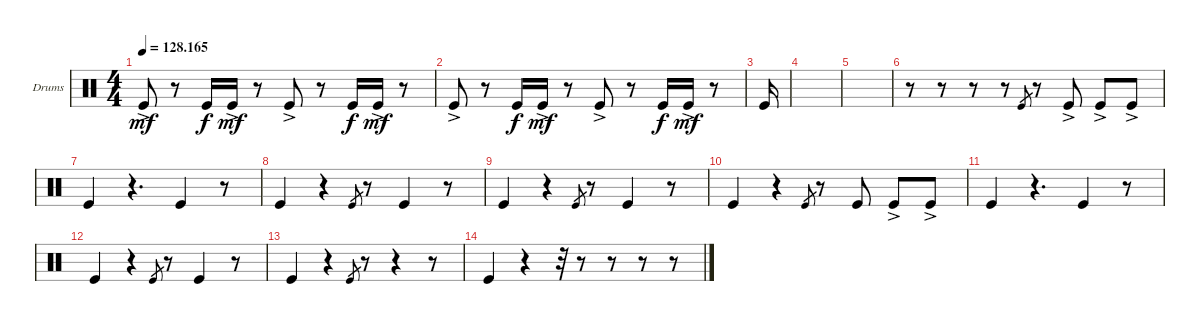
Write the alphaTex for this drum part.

\defaultSystemsLayout 4
\bracketExtendMode groupsimilarinstruments
\firstSystemTrackNameOrientation horizontal
\otherSystemsTrackNameOrientation horizontal
\track ("Drumkit" "Drums") {instrument percussion}
\staff {score}
\articulation defaults
\ts (4 4)
\tempo
128.165
\accidentals auto
\clef neutral
\ottava regular
\simile none
\ks c "Kick (hit)"{ac}.8{dy mf}
r.8 "Kick (hit)".16{dy f} "Kick (hit)"{ac}.16{dy mf} r.8 "Kick (hit)"{ac}.8 r.8 "Kick (hit)".16{dy f} "Kick (hit)"{ac}.16{dy mf} r.8 |
"Kick (hit)"{ac}.8 r.8 "Kick (hit)".16{dy f} "Kick (hit)"{ac}.16{dy mf} r.8 "Kick (hit)"{ac}.8 r.8 "Kick (hit)".16{dy f} "Kick (hit)"{ac}.16{dy mf} r.8 |
"Kick (hit)".16 |
|
|
r.8 r.8 r.8 r.8 "Kick (hit)".8{gr} r.8 "Kick (hit)"{ac}.8 "Kick (hit)"{ac}.8 "Kick (hit)"{ac}.8 |
"Kick (hit)".4 r.4{d} "Kick (hit)".4 r.8 |
"Kick (hit)".4 r.4 "Kick (hit)".8{gr} r.8 "Kick (hit)".4 r.8 |
"Kick (hit)".4 r.4 "Kick (hit)".8{gr} r.8 "Kick (hit)".4 r.8 |
"Kick (hit)".4 r.4 "Kick (hit)".8{gr} r.8 "Kick (hit)".8 "Kick (hit)"{ac}.8 "Kick (hit)"{ac}.8 |
"Kick (hit)".4 r.4{d} "Kick (hit)".4 r.8 |
"Kick (hit)".4 r.4 "Kick (hit)".8{gr} r.8 "Kick (hit)".4 r.8 |
"Kick (hit)".4 r.4 "Kick (hit)".8{gr} r.8 r.4 r.8 |
"Kick (hit)".4 r.4 r.32 r.8 r.8 r.8 r.8
